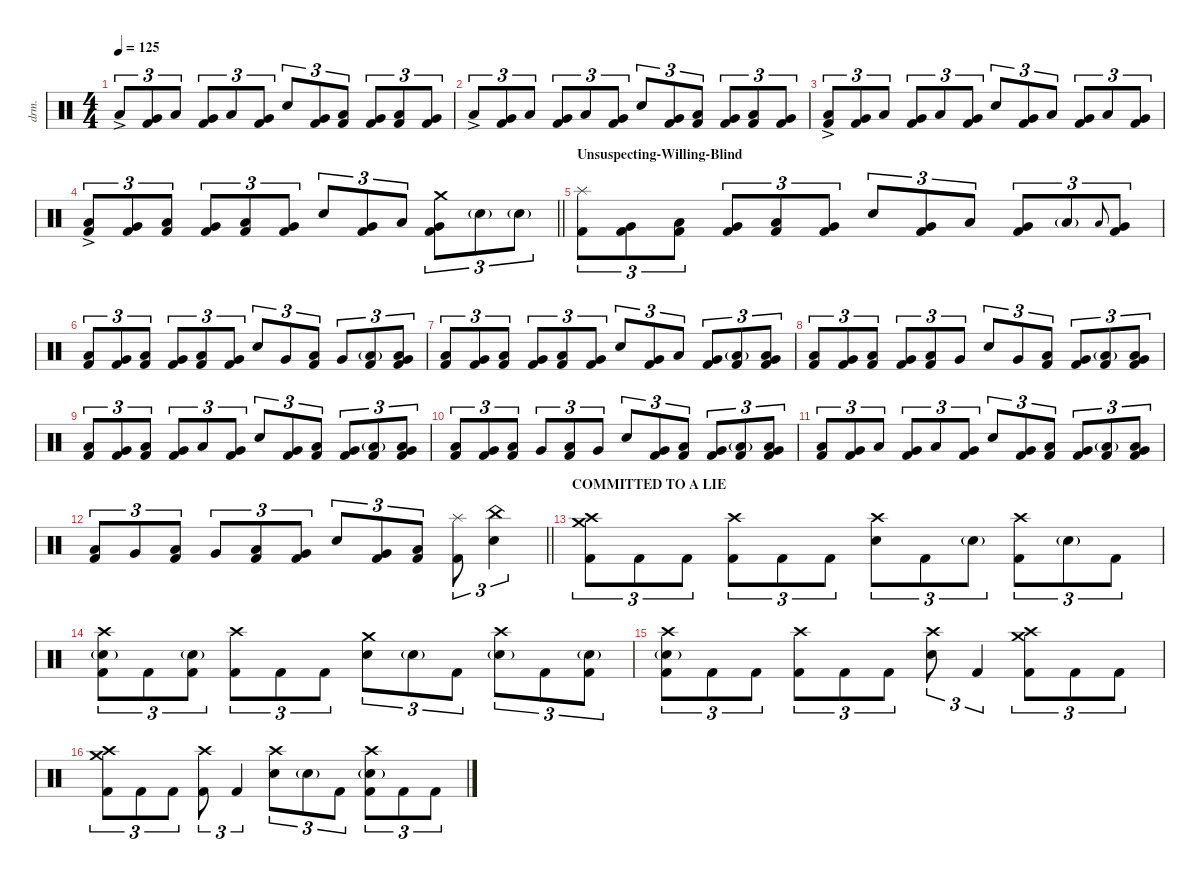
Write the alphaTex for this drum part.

\defaultSystemsLayout 4
\hideDynamics
\bracketExtendMode nobrackets
\track ("DRUMS (Thomas Haake)" "drm.") {instrument percussion}
\staff {score}
\articulation defaults
\ts (4 4)
\tempo 125
\clef neutral
\ks c "Low Floor Tom (hit)"{ac}.8{tu (3 2) dy mf}
("Very Low Tom (hit)" "Kick (hit) 2").8{tu (3 2)} "Low Floor Tom (hit)".8{tu (3 2) dy mp} ("Very Low Tom (hit)" "Kick (hit) 2").8{tu (3 2)} "Low Floor Tom (hit)".8{tu (3 2) dy mf} ("Very Low Tom (hit)" "Kick (hit) 2").8{tu (3 2)} "Snare (hit) 2".8{tu (3 2) dy f} ("Very Low Tom (hit)" "Kick (hit) 2").8{tu (3 2) dy mp} ("Low Floor Tom (hit)" "Kick (hit) 2").8{tu (3 2) dy mf} ("Very Low Tom (hit)" "Kick (hit) 2").8{tu (3 2)} ("Low Floor Tom (hit)" "Kick (hit) 2").8{tu (3 2) dy mp} ("Very Low Tom (hit)" "Kick (hit) 2").8{tu (3 2)} |
"Low Floor Tom (hit)"{ac}.8{tu (3 2) dy mf} ("Very Low Tom (hit)" "Kick (hit) 2").8{tu (3 2)} "Low Floor Tom (hit)".8{tu (3 2) dy mp} ("Very Low Tom (hit)" "Kick (hit) 2").8{tu (3 2)} "Low Floor Tom (hit)".8{tu (3 2) dy mf} ("Very Low Tom (hit)" "Kick (hit) 2").8{tu (3 2)} "Snare (hit) 2".8{tu (3 2) dy f} ("Very Low Tom (hit)" "Kick (hit) 2").8{tu (3 2) dy mp} ("Low Floor Tom (hit)" "Kick (hit) 2").8{tu (3 2) dy mf} ("Very Low Tom (hit)" "Kick (hit) 2").8{tu (3 2)} ("Low Floor Tom (hit)" "Kick (hit) 2").8{tu (3 2) dy mp} ("Very Low Tom (hit)" "Kick (hit) 2").8{tu (3 2)} |
("Low Floor Tom (hit)"{ac} "Kick (hit) 2").8{tu (3 2) dy f} ("Very Low Tom (hit)" "Kick (hit) 2").8{tu (3 2) dy mf} "Low Floor Tom (hit)".8{tu (3 2) dy mp} ("Very Low Tom (hit)" "Kick (hit) 2").8{tu (3 2)} "Low Floor Tom (hit)".8{tu (3 2) dy mf} ("Very Low Tom (hit)" "Kick (hit) 2").8{tu (3 2)} "Snare (hit) 2".8{tu (3 2) dy f} ("Very Low Tom (hit)" "Kick (hit) 2").8{tu (3 2) dy mp} "Low Floor Tom (hit)".8{tu (3 2) dy mf} ("Very Low Tom (hit)" "Kick (hit) 2").8{tu (3 2)} "Low Floor Tom (hit)".8{tu (3 2) dy mp} ("Very Low Tom (hit)" "Kick (hit) 2").8{tu (3 2)} |
\barLineRight lightlight
("Low Floor Tom (hit)"{ac} "Kick (hit) 2").8{tu (3 2) dy f} ("Very Low Tom (hit)" "Kick (hit) 2").8{tu (3 2) dy mf} ("Low Floor Tom (hit)" "Kick (hit) 2").8{tu (3 2) dy mp} ("Very Low Tom (hit)" "Kick (hit) 2").8{tu (3 2)} ("Low Floor Tom (hit)" "Kick (hit) 2").8{tu (3 2) dy mf} ("Very Low Tom (hit)" "Kick (hit) 2").8{tu (3 2)} "Snare (hit) 2".8{tu (3 2) dy f} ("Very Low Tom (hit)" "Kick (hit) 2").8{tu (3 2) dy mp} "Low Floor Tom (hit)".8{tu (3 2) dy mf} ("Crash medium (hit)" "Very Low Tom (hit)" "Kick (hit) 2").8{tu (3 2)} "Snare (hit) 2"{g}.8{tu (3 2) dy mp} "Snare (hit) 2"{g}.8{tu (3 2) dy mf} |
\section ("" "Unsuspecting-Willing-Blind")
("Splash (hit)" "Kick (hit) 2").8{tu (3 2) dy f} ("Very Low Tom (hit)" "Kick (hit) 2").8{tu (3 2) dy mf} ("Low Tom (hit)" "Kick (hit) 2").8{tu (3 2) dy f} ("Very Low Tom (hit)" "Kick (hit) 2").8{tu (3 2) dy mp} ("Low Floor Tom (hit)" "Kick (hit) 2").8{tu (3 2) dy mf} ("Very Low Tom (hit)" "Kick (hit) 2").8{tu (3 2)} "Snare (hit) 2".8{tu (3 2) dy f} ("Very Low Tom (hit)" "Kick (hit) 2").8{tu (3 2) dy mp} "Low Floor Tom (hit)".8{tu (3 2) dy mf} ("Very Low Tom (hit)" "Kick (hit) 2").8{tu (3 2)} "Low Floor Tom (hit)"{g}.8{tu (3 2)} "Low Tom (hit)".8{gr onbeat dy mp} ("Very Low Tom (hit)" "Kick (hit) 2").8{tu (3 2) dy mf} |
("Low Floor Tom (hit)" "Kick (hit) 2").8{tu (3 2)} ("Very Low Tom (hit)" "Kick (hit) 2").8{tu (3 2)} ("Low Floor Tom (hit)" "Kick (hit) 2").8{tu (3 2)} ("Very Low Tom (hit)" "Kick (hit) 2").8{tu (3 2)} ("Low Floor Tom (hit)" "Kick (hit) 2").8{tu (3 2)} ("Very Low Tom (hit)" "Kick (hit) 2").8{tu (3 2)} "Snare (hit) 2".8{tu (3 2) dy f} "Very Low Tom (hit)".8{tu (3 2) dy mf} ("Low Floor Tom (hit)" "Kick (hit) 2").8{tu (3 2)} "Very Low Tom (hit)".8{tu (3 2) dy mp} ("Low Floor Tom (hit)"{g} "Kick (hit) 2").8{tu (3 2) dy f} ("Low Tom (hit)" "Very Low Tom (hit)" "Kick (hit) 2").8{tu (3 2) dy mf} |
("Low Floor Tom (hit)" "Kick (hit) 2").8{tu (3 2)} ("Very Low Tom (hit)" "Kick (hit) 2").8{tu (3 2)} ("Low Tom (hit)" "Kick (hit) 2").8{tu (3 2) dy mp} ("Very Low Tom (hit)" "Kick (hit) 2").8{tu (3 2) dy mf} ("Low Floor Tom (hit)" "Kick (hit) 2").8{tu (3 2)} ("Very Low Tom (hit)" "Kick (hit) 2").8{tu (3 2)} "Snare (hit) 2".8{tu (3 2) dy f} ("Very Low Tom (hit)" "Kick (hit) 2").8{tu (3 2) dy mf} "Low Floor Tom (hit)".8{tu (3 2)} ("Very Low Tom (hit)" "Kick (hit) 2").8{tu (3 2) dy mp} ("Low Floor Tom (hit)"{g} "Kick (hit) 2").8{tu (3 2) dy f} ("Low Tom (hit)" "Very Low Tom (hit)" "Kick (hit) 2").8{tu (3 2) dy mf} |
("Low Floor Tom (hit)" "Kick (hit) 2").8{tu (3 2)} ("Very Low Tom (hit)" "Kick (hit) 2").8{tu (3 2)} ("Low Floor Tom (hit)" "Kick (hit) 2").8{tu (3 2)} ("Very Low Tom (hit)" "Kick (hit) 2").8{tu (3 2)} ("Low Floor Tom (hit)" "Kick (hit) 2").8{tu (3 2)} "Very Low Tom (hit)".8{tu (3 2)} "Snare (hit) 2".8{tu (3 2) dy f} "Very Low Tom (hit)".8{tu (3 2) dy mf} ("Low Floor Tom (hit)" "Kick (hit) 2").8{tu (3 2)} ("Very Low Tom (hit)" "Kick (hit) 2").8{tu (3 2) dy mp} ("Low Floor Tom (hit)"{g} "Kick (hit) 2").8{tu (3 2) dy f} ("Low Tom (hit)" "Very Low Tom (hit)" "Kick (hit) 2").8{tu (3 2) dy mf} |
("Low Floor Tom (hit)" "Kick (hit) 2").8{tu (3 2)} ("Very Low Tom (hit)" "Kick (hit) 2").8{tu (3 2)} ("Low Tom (hit)" "Kick (hit) 2").8{tu (3 2) dy mp} ("Very Low Tom (hit)" "Kick (hit) 2").8{tu (3 2) dy mf} "Low Floor Tom (hit)".8{tu (3 2)} ("Very Low Tom (hit)" "Kick (hit) 2").8{tu (3 2)} "Snare (hit) 2".8{tu (3 2) dy f} ("Very Low Tom (hit)" "Kick (hit) 2").8{tu (3 2) dy mf} ("Low Floor Tom (hit)" "Kick (hit) 2").8{tu (3 2)} ("Very Low Tom (hit)" "Kick (hit) 2").8{tu (3 2) dy mp} ("Low Floor Tom (hit)"{g} "Kick (hit) 2").8{tu (3 2) dy f} ("Low Tom (hit)" "Very Low Tom (hit)" "Kick (hit) 2").8{tu (3 2) dy mf} |
("Low Floor Tom (hit)" "Kick (hit) 2").8{tu (3 2)} ("Very Low Tom (hit)" "Kick (hit) 2").8{tu (3 2)} ("Low Floor Tom (hit)" "Kick (hit) 2").8{tu (3 2)} "Very Low Tom (hit)".8{tu (3 2)} ("Low Floor Tom (hit)" "Kick (hit) 2").8{tu (3 2)} "Very Low Tom (hit)".8{tu (3 2)} "Snare (hit) 2".8{tu (3 2) dy f} ("Very Low Tom (hit)" "Kick (hit) 2").8{tu (3 2) dy mf} ("Low Floor Tom (hit)" "Kick (hit) 2").8{tu (3 2)} ("Very Low Tom (hit)" "Kick (hit) 2").8{tu (3 2) dy mp} ("Low Floor Tom (hit)"{g} "Kick (hit) 2").8{tu (3 2) dy f} ("Low Tom (hit)" "Very Low Tom (hit)" "Kick (hit) 2").8{tu (3 2) dy mf} |
("Low Floor Tom (hit)" "Kick (hit) 2").8{tu (3 2)} ("Very Low Tom (hit)" "Kick (hit) 2").8{tu (3 2)} "Low Tom (hit)".8{tu (3 2) dy mp} ("Very Low Tom (hit)" "Kick (hit) 2").8{tu (3 2) dy mf} "Low Floor Tom (hit)".8{tu (3 2)} ("Very Low Tom (hit)" "Kick (hit) 2").8{tu (3 2)} "Snare (hit) 2".8{tu (3 2) dy f} ("Very Low Tom (hit)" "Kick (hit) 2").8{tu (3 2) dy mf} ("Low Floor Tom (hit)" "Kick (hit) 2").8{tu (3 2)} ("Very Low Tom (hit)" "Kick (hit) 2").8{tu (3 2) dy mp} ("Low Floor Tom (hit)"{g} "Kick (hit) 2").8{tu (3 2) dy f} ("Low Tom (hit)" "Very Low Tom (hit)" "Kick (hit) 2").8{tu (3 2) dy mf} |
\barLineRight lightlight
("Low Floor Tom (hit)" "Kick (hit) 2").8{tu (3 2)} "Very Low Tom (hit)".8{tu (3 2)} ("Low Floor Tom (hit)" "Kick (hit) 2").8{tu (3 2)} "Very Low Tom (hit)".8{tu (3 2)} ("Low Floor Tom (hit)" "Kick (hit) 2").8{tu (3 2)} ("Very Low Tom (hit)" "Kick (hit) 2").8{tu (3 2)} "Snare (hit) 2".8{tu (3 2) dy f} ("Very Low Tom (hit)" "Kick (hit) 2").8{tu (3 2) dy mf} ("Low Floor Tom (hit)" "Kick (hit) 2").8{tu (3 2)} ("Splash (hit)" "Kick (hit) 2").8{tu (3 2) dy f} ("China (hit)" "Snare (hit) 2").4{tu (3 2) dy p} |
\section ("" "COMMITTED TO A LIE")
("Crash high (hit)" "Crash medium (hit)" "Kick (hit) 2").8{tu (3 2) dy f} "Kick (hit) 2".8{tu (3 2)} "Kick (hit) 2".8{tu (3 2)} ("Crash high (hit)" "Kick (hit) 2").8{tu (3 2)} "Kick (hit) 2".8{tu (3 2)} "Kick (hit) 2".8{tu (3 2)} ("Crash high (hit)" "Snare (hit) 2").8{tu (3 2)} "Kick (hit) 2".8{tu (3 2)} "Snare (hit) 2"{g}.8{tu (3 2) dy p} ("Crash high (hit)" "Kick (hit) 2").8{tu (3 2) dy f} "Snare (hit) 2"{g}.8{tu (3 2) dy p} "Kick (hit) 2".8{tu (3 2) dy f} |
("Crash high (hit)" "Snare (hit) 2"{g} "Kick (hit) 2").8{tu (3 2)} "Kick (hit) 2".8{tu (3 2)} ("Snare (hit) 2"{g} "Kick (hit) 2").8{tu (3 2)} ("Crash high (hit)" "Kick (hit) 2").8{tu (3 2)} "Kick (hit) 2".8{tu (3 2)} "Kick (hit) 2".8{tu (3 2)} ("Crash medium (hit)" "Snare (hit) 2").8{tu (3 2)} "Snare (hit) 2"{g}.8{tu (3 2) dy p} "Kick (hit) 2".8{tu (3 2) dy f} ("Crash high (hit)" "Snare (hit) 2"{g}).8{tu (3 2)} "Kick (hit) 2".8{tu (3 2)} ("Snare (hit) 2"{g} "Kick (hit) 2").8{tu (3 2)} |
("Crash high (hit)" "Snare (hit) 2"{g} "Kick (hit) 2").8{tu (3 2)} "Kick (hit) 2".8{tu (3 2)} "Kick (hit) 2".8{tu (3 2)} ("Crash high (hit)" "Kick (hit) 2").8{tu (3 2)} "Kick (hit) 2".8{tu (3 2)} "Kick (hit) 2".8{tu (3 2)} ("Crash high (hit)" "Snare (hit) 2").8{tu (3 2)} "Kick (hit) 2".4{tu (3 2)} ("Crash high (hit)" "Crash medium (hit)" "Kick (hit) 2").8{tu (3 2)} "Kick (hit) 2".8{tu (3 2)} "Kick (hit) 2".8{tu (3 2)} |
("Crash high (hit)" "Crash medium (hit)" "Kick (hit) 2").8{tu (3 2)} "Kick (hit) 2".8{tu (3 2)} "Kick (hit) 2".8{tu (3 2)} ("Crash high (hit)" "Kick (hit) 2").8{tu (3 2)} "Kick (hit) 2".4{tu (3 2)} ("Crash high (hit)" "Snare (hit) 2").8{tu (3 2)} "Snare (hit) 2"{g}.8{tu (3 2) dy p} "Kick (hit) 2".8{tu (3 2) dy f} ("Crash high (hit)" "Snare (hit) 2"{g} "Kick (hit) 2").8{tu (3 2)} "Kick (hit) 2".8{tu (3 2)} "Kick (hit) 2".8{tu (3 2)}
